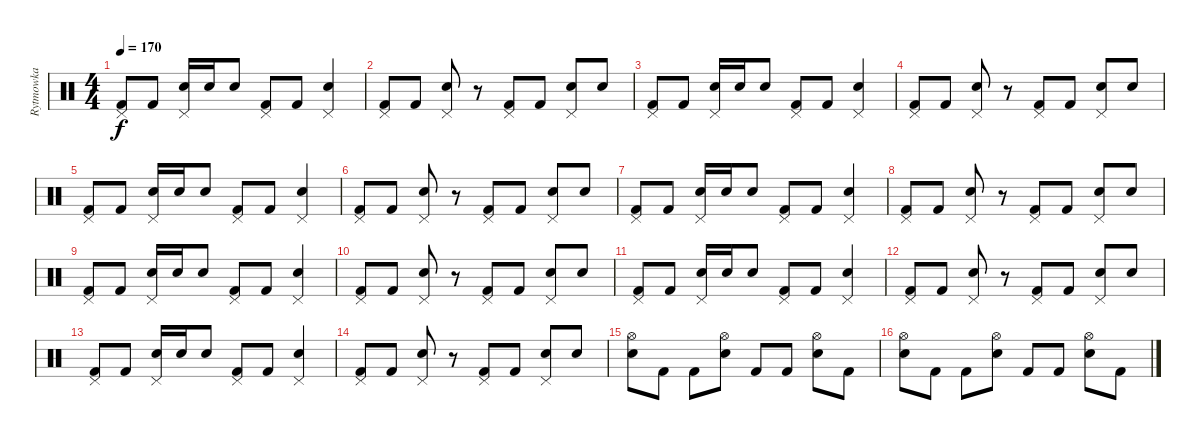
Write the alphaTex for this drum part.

\track ("Rytmowka" "Rytmowka") {instrument percussion}
\staff {score}
\articulation defaults
\ts (4 4)
\tempo 170
\clef neutral
\ks c
("Pedal Hi-Hat (hit)" "Kick (hit) 2").8{dy f} "Kick (hit) 2".8 ("Pedal Hi-Hat (hit)" "Snare (hit) 2").16 "Snare (hit) 2".16 "Snare (hit) 2".8 ("Pedal Hi-Hat (hit)" "Kick (hit) 2").8 "Kick (hit) 2".8 ("Pedal Hi-Hat (hit)" "Snare (hit) 2").4 |
("Pedal Hi-Hat (hit)" "Kick (hit) 2").8 "Kick (hit) 2".8 ("Pedal Hi-Hat (hit)" "Snare (hit) 2").8 r.8 ("Pedal Hi-Hat (hit)" "Kick (hit) 2").8 "Kick (hit) 2".8 ("Pedal Hi-Hat (hit)" "Snare (hit) 2").8 "Snare (hit) 2".8 |
("Pedal Hi-Hat (hit)" "Kick (hit) 2").8 "Kick (hit) 2".8 ("Pedal Hi-Hat (hit)" "Snare (hit) 2").16 "Snare (hit) 2".16 "Snare (hit) 2".8 ("Pedal Hi-Hat (hit)" "Kick (hit) 2").8 "Kick (hit) 2".8 ("Pedal Hi-Hat (hit)" "Snare (hit) 2").4 |
("Pedal Hi-Hat (hit)" "Kick (hit) 2").8 "Kick (hit) 2".8 ("Pedal Hi-Hat (hit)" "Snare (hit) 2").8 r.8 ("Pedal Hi-Hat (hit)" "Kick (hit) 2").8 "Kick (hit) 2".8 ("Pedal Hi-Hat (hit)" "Snare (hit) 2").8 "Snare (hit) 2".8 |
("Pedal Hi-Hat (hit)" "Kick (hit) 2").8 "Kick (hit) 2".8 ("Pedal Hi-Hat (hit)" "Snare (hit) 2").16 "Snare (hit) 2".16 "Snare (hit) 2".8 ("Pedal Hi-Hat (hit)" "Kick (hit) 2").8 "Kick (hit) 2".8 ("Pedal Hi-Hat (hit)" "Snare (hit) 2").4 |
("Pedal Hi-Hat (hit)" "Kick (hit) 2").8 "Kick (hit) 2".8 ("Pedal Hi-Hat (hit)" "Snare (hit) 2").8 r.8 ("Pedal Hi-Hat (hit)" "Kick (hit) 2").8 "Kick (hit) 2".8 ("Pedal Hi-Hat (hit)" "Snare (hit) 2").8 "Snare (hit) 2".8 |
("Pedal Hi-Hat (hit)" "Kick (hit) 2").8 "Kick (hit) 2".8 ("Pedal Hi-Hat (hit)" "Snare (hit) 2").16 "Snare (hit) 2".16 "Snare (hit) 2".8 ("Pedal Hi-Hat (hit)" "Kick (hit) 2").8 "Kick (hit) 2".8 ("Pedal Hi-Hat (hit)" "Snare (hit) 2").4 |
("Pedal Hi-Hat (hit)" "Kick (hit) 2").8 "Kick (hit) 2".8 ("Pedal Hi-Hat (hit)" "Snare (hit) 2").8 r.8 ("Pedal Hi-Hat (hit)" "Kick (hit) 2").8 "Kick (hit) 2".8 ("Pedal Hi-Hat (hit)" "Snare (hit) 2").8 "Snare (hit) 2".8 |
("Pedal Hi-Hat (hit)" "Kick (hit) 2").8 "Kick (hit) 2".8 ("Pedal Hi-Hat (hit)" "Snare (hit) 2").16 "Snare (hit) 2".16 "Snare (hit) 2".8 ("Pedal Hi-Hat (hit)" "Kick (hit) 2").8 "Kick (hit) 2".8 ("Pedal Hi-Hat (hit)" "Snare (hit) 2").4 |
("Pedal Hi-Hat (hit)" "Kick (hit) 2").8 "Kick (hit) 2".8 ("Pedal Hi-Hat (hit)" "Snare (hit) 2").8 r.8 ("Pedal Hi-Hat (hit)" "Kick (hit) 2").8 "Kick (hit) 2".8 ("Pedal Hi-Hat (hit)" "Snare (hit) 2").8 "Snare (hit) 2".8 |
("Pedal Hi-Hat (hit)" "Kick (hit) 2").8 "Kick (hit) 2".8 ("Pedal Hi-Hat (hit)" "Snare (hit) 2").16 "Snare (hit) 2".16 "Snare (hit) 2".8 ("Pedal Hi-Hat (hit)" "Kick (hit) 2").8 "Kick (hit) 2".8 ("Pedal Hi-Hat (hit)" "Snare (hit) 2").4 |
("Pedal Hi-Hat (hit)" "Kick (hit) 2").8 "Kick (hit) 2".8 ("Pedal Hi-Hat (hit)" "Snare (hit) 2").8 r.8 ("Pedal Hi-Hat (hit)" "Kick (hit) 2").8 "Kick (hit) 2".8 ("Pedal Hi-Hat (hit)" "Snare (hit) 2").8 "Snare (hit) 2".8 |
("Pedal Hi-Hat (hit)" "Kick (hit) 2").8 "Kick (hit) 2".8 ("Pedal Hi-Hat (hit)" "Snare (hit) 2").16 "Snare (hit) 2".16 "Snare (hit) 2".8 ("Pedal Hi-Hat (hit)" "Kick (hit) 2").8 "Kick (hit) 2".8 ("Pedal Hi-Hat (hit)" "Snare (hit) 2").4 |
("Pedal Hi-Hat (hit)" "Kick (hit) 2").8 "Kick (hit) 2".8 ("Pedal Hi-Hat (hit)" "Snare (hit) 2").8 r.8 ("Pedal Hi-Hat (hit)" "Kick (hit) 2").8 "Kick (hit) 2".8 ("Pedal Hi-Hat (hit)" "Snare (hit) 2").8 "Snare (hit) 2".8 |
("Hi-Hat (open)" "Snare (hit) 2").8 "Kick (hit) 2".8 "Kick (hit) 2".8 ("Hi-Hat (open)" "Snare (hit) 2").8 "Kick (hit) 2".8 "Kick (hit) 2".8 ("Hi-Hat (open)" "Snare (hit) 2").8 "Kick (hit) 2".8 |
("Hi-Hat (open)" "Snare (hit) 2").8 "Kick (hit) 2".8 "Kick (hit) 2".8 ("Hi-Hat (open)" "Snare (hit) 2").8 "Kick (hit) 2".8 "Kick (hit) 2".8 ("Hi-Hat (open)" "Snare (hit) 2").8 "Kick (hit) 2".8
